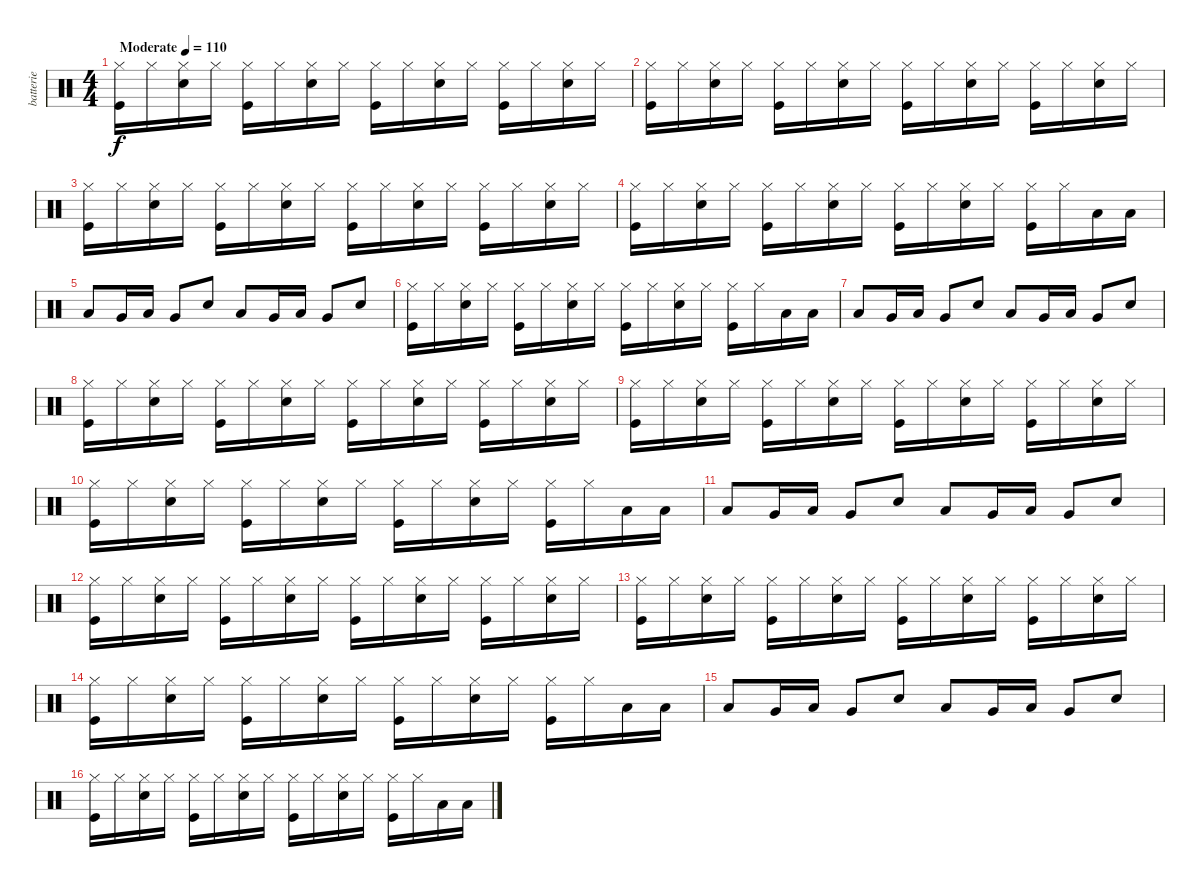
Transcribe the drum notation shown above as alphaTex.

\track ("batterie" "batterie") {instrument percussion}
\staff {score}
\articulation defaults
\ts (4 4)
\tempo (110 "Moderate")
\clef neutral
\ks c
("Hi-Hat (closed)" "Kick (hit)").16{dy f} "Hi-Hat (closed)".16 ("Hi-Hat (closed)" "Snare (hit) 2").16 "Hi-Hat (closed)".16 ("Hi-Hat (closed)" "Kick (hit)").16 "Hi-Hat (closed)".16 ("Hi-Hat (closed)" "Snare (hit) 2").16 "Hi-Hat (closed)".16 ("Hi-Hat (closed)" "Kick (hit)").16 "Hi-Hat (closed)".16 ("Hi-Hat (closed)" "Snare (hit) 2").16 "Hi-Hat (closed)".16 ("Hi-Hat (closed)" "Kick (hit)").16 "Hi-Hat (closed)".16 ("Hi-Hat (closed)" "Snare (hit) 2").16 "Hi-Hat (closed)".16 |
("Hi-Hat (closed)" "Kick (hit)").16 "Hi-Hat (closed)".16 ("Hi-Hat (closed)" "Snare (hit) 2").16 "Hi-Hat (closed)".16 ("Hi-Hat (closed)" "Kick (hit)").16 "Hi-Hat (closed)".16 ("Hi-Hat (closed)" "Snare (hit) 2").16 "Hi-Hat (closed)".16 ("Hi-Hat (closed)" "Kick (hit)").16 "Hi-Hat (closed)".16 ("Hi-Hat (closed)" "Snare (hit) 2").16 "Hi-Hat (closed)".16 ("Hi-Hat (closed)" "Kick (hit)").16 "Hi-Hat (closed)".16 ("Hi-Hat (closed)" "Snare (hit) 2").16 "Hi-Hat (closed)".16 |
("Hi-Hat (closed)" "Kick (hit)").16 "Hi-Hat (closed)".16 ("Hi-Hat (closed)" "Snare (hit) 2").16 "Hi-Hat (closed)".16 ("Hi-Hat (closed)" "Kick (hit)").16 "Hi-Hat (closed)".16 ("Hi-Hat (closed)" "Snare (hit) 2").16 "Hi-Hat (closed)".16 ("Hi-Hat (closed)" "Kick (hit)").16 "Hi-Hat (closed)".16 ("Hi-Hat (closed)" "Snare (hit) 2").16 "Hi-Hat (closed)".16 ("Hi-Hat (closed)" "Kick (hit)").16 "Hi-Hat (closed)".16 ("Hi-Hat (closed)" "Snare (hit) 2").16 "Hi-Hat (closed)".16 |
("Hi-Hat (closed)" "Kick (hit)").16 "Hi-Hat (closed)".16 ("Hi-Hat (closed)" "Snare (hit) 2").16 "Hi-Hat (closed)".16 ("Hi-Hat (closed)" "Kick (hit)").16 "Hi-Hat (closed)".16 ("Hi-Hat (closed)" "Snare (hit) 2").16 "Hi-Hat (closed)".16 ("Hi-Hat (closed)" "Kick (hit)").16 "Hi-Hat (closed)".16 ("Hi-Hat (closed)" "Snare (hit) 2").16 "Hi-Hat (closed)".16 ("Hi-Hat (closed)" "Kick (hit)").16 "Hi-Hat (closed)".16 "Low Floor Tom (hit)".16 "Low Floor Tom (hit)".16 |
"Low Tom (hit)".8 "Very Low Tom (hit)".16 "Low Floor Tom (hit)".16 "Very Low Tom (hit)".8 "Snare (hit) 2".8 "Low Tom (hit)".8 "Very Low Tom (hit)".16 "Low Floor Tom (hit)".16 "Very Low Tom (hit)".8 "Snare (hit) 2".8 |
("Hi-Hat (closed)" "Kick (hit)").16 "Hi-Hat (closed)".16 ("Hi-Hat (closed)" "Snare (hit) 2").16 "Hi-Hat (closed)".16 ("Hi-Hat (closed)" "Kick (hit)").16 "Hi-Hat (closed)".16 ("Hi-Hat (closed)" "Snare (hit) 2").16 "Hi-Hat (closed)".16 ("Hi-Hat (closed)" "Kick (hit)").16 "Hi-Hat (closed)".16 ("Hi-Hat (closed)" "Snare (hit) 2").16 "Hi-Hat (closed)".16 ("Hi-Hat (closed)" "Kick (hit)").16 "Hi-Hat (closed)".16 "Low Floor Tom (hit)".16 "Low Floor Tom (hit)".16 |
"Low Tom (hit)".8 "Very Low Tom (hit)".16 "Low Floor Tom (hit)".16 "Very Low Tom (hit)".8 "Snare (hit) 2".8 "Low Tom (hit)".8 "Very Low Tom (hit)".16 "Low Floor Tom (hit)".16 "Very Low Tom (hit)".8 "Snare (hit) 2".8 |
("Hi-Hat (closed)" "Kick (hit)").16 "Hi-Hat (closed)".16 ("Hi-Hat (closed)" "Snare (hit) 2").16 "Hi-Hat (closed)".16 ("Hi-Hat (closed)" "Kick (hit)").16 "Hi-Hat (closed)".16 ("Hi-Hat (closed)" "Snare (hit) 2").16 "Hi-Hat (closed)".16 ("Hi-Hat (closed)" "Kick (hit)").16 "Hi-Hat (closed)".16 ("Hi-Hat (closed)" "Snare (hit) 2").16 "Hi-Hat (closed)".16 ("Hi-Hat (closed)" "Kick (hit)").16 "Hi-Hat (closed)".16 ("Hi-Hat (closed)" "Snare (hit) 2").16 "Hi-Hat (closed)".16 |
("Hi-Hat (closed)" "Kick (hit)").16 "Hi-Hat (closed)".16 ("Hi-Hat (closed)" "Snare (hit) 2").16 "Hi-Hat (closed)".16 ("Hi-Hat (closed)" "Kick (hit)").16 "Hi-Hat (closed)".16 ("Hi-Hat (closed)" "Snare (hit) 2").16 "Hi-Hat (closed)".16 ("Hi-Hat (closed)" "Kick (hit)").16 "Hi-Hat (closed)".16 ("Hi-Hat (closed)" "Snare (hit) 2").16 "Hi-Hat (closed)".16 ("Hi-Hat (closed)" "Kick (hit)").16 "Hi-Hat (closed)".16 ("Hi-Hat (closed)" "Snare (hit) 2").16 "Hi-Hat (closed)".16 |
("Hi-Hat (closed)" "Kick (hit)").16 "Hi-Hat (closed)".16 ("Hi-Hat (closed)" "Snare (hit) 2").16 "Hi-Hat (closed)".16 ("Hi-Hat (closed)" "Kick (hit)").16 "Hi-Hat (closed)".16 ("Hi-Hat (closed)" "Snare (hit) 2").16 "Hi-Hat (closed)".16 ("Hi-Hat (closed)" "Kick (hit)").16 "Hi-Hat (closed)".16 ("Hi-Hat (closed)" "Snare (hit) 2").16 "Hi-Hat (closed)".16 ("Hi-Hat (closed)" "Kick (hit)").16 "Hi-Hat (closed)".16 "Low Floor Tom (hit)".16 "Low Floor Tom (hit)".16 |
"Low Tom (hit)".8 "Very Low Tom (hit)".16 "Low Floor Tom (hit)".16 "Very Low Tom (hit)".8 "Snare (hit) 2".8 "Low Tom (hit)".8 "Very Low Tom (hit)".16 "Low Floor Tom (hit)".16 "Very Low Tom (hit)".8 "Snare (hit) 2".8 |
("Hi-Hat (closed)" "Kick (hit)").16 "Hi-Hat (closed)".16 ("Hi-Hat (closed)" "Snare (hit) 2").16 "Hi-Hat (closed)".16 ("Hi-Hat (closed)" "Kick (hit)").16 "Hi-Hat (closed)".16 ("Hi-Hat (closed)" "Snare (hit) 2").16 "Hi-Hat (closed)".16 ("Hi-Hat (closed)" "Kick (hit)").16 "Hi-Hat (closed)".16 ("Hi-Hat (closed)" "Snare (hit) 2").16 "Hi-Hat (closed)".16 ("Hi-Hat (closed)" "Kick (hit)").16 "Hi-Hat (closed)".16 ("Hi-Hat (closed)" "Snare (hit) 2").16 "Hi-Hat (closed)".16 |
("Hi-Hat (closed)" "Kick (hit)").16 "Hi-Hat (closed)".16 ("Hi-Hat (closed)" "Snare (hit) 2").16 "Hi-Hat (closed)".16 ("Hi-Hat (closed)" "Kick (hit)").16 "Hi-Hat (closed)".16 ("Hi-Hat (closed)" "Snare (hit) 2").16 "Hi-Hat (closed)".16 ("Hi-Hat (closed)" "Kick (hit)").16 "Hi-Hat (closed)".16 ("Hi-Hat (closed)" "Snare (hit) 2").16 "Hi-Hat (closed)".16 ("Hi-Hat (closed)" "Kick (hit)").16 "Hi-Hat (closed)".16 ("Hi-Hat (closed)" "Snare (hit) 2").16 "Hi-Hat (closed)".16 |
("Hi-Hat (closed)" "Kick (hit)").16 "Hi-Hat (closed)".16 ("Hi-Hat (closed)" "Snare (hit) 2").16 "Hi-Hat (closed)".16 ("Hi-Hat (closed)" "Kick (hit)").16 "Hi-Hat (closed)".16 ("Hi-Hat (closed)" "Snare (hit) 2").16 "Hi-Hat (closed)".16 ("Hi-Hat (closed)" "Kick (hit)").16 "Hi-Hat (closed)".16 ("Hi-Hat (closed)" "Snare (hit) 2").16 "Hi-Hat (closed)".16 ("Hi-Hat (closed)" "Kick (hit)").16 "Hi-Hat (closed)".16 "Low Floor Tom (hit)".16 "Low Floor Tom (hit)".16 |
"Low Tom (hit)".8 "Very Low Tom (hit)".16 "Low Floor Tom (hit)".16 "Very Low Tom (hit)".8 "Snare (hit) 2".8 "Low Tom (hit)".8 "Very Low Tom (hit)".16 "Low Floor Tom (hit)".16 "Very Low Tom (hit)".8 "Snare (hit) 2".8 |
("Hi-Hat (closed)" "Kick (hit)").16 "Hi-Hat (closed)".16 ("Hi-Hat (closed)" "Snare (hit) 2").16 "Hi-Hat (closed)".16 ("Hi-Hat (closed)" "Kick (hit)").16 "Hi-Hat (closed)".16 ("Hi-Hat (closed)" "Snare (hit) 2").16 "Hi-Hat (closed)".16 ("Hi-Hat (closed)" "Kick (hit)").16 "Hi-Hat (closed)".16 ("Hi-Hat (closed)" "Snare (hit) 2").16 "Hi-Hat (closed)".16 ("Hi-Hat (closed)" "Kick (hit)").16 "Hi-Hat (closed)".16 "Low Floor Tom (hit)".16 "Low Floor Tom (hit)".16
